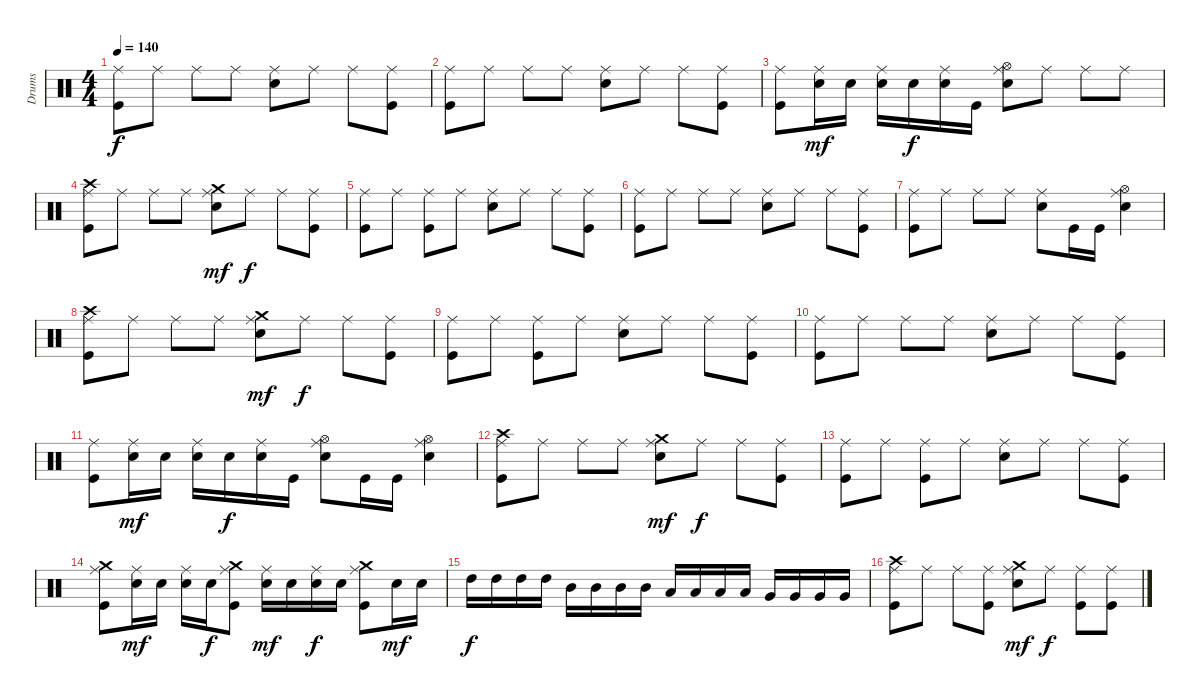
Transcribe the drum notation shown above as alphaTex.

\track ("Drums" "Drums") {instrument percussion}
\staff {score}
\articulation defaults
\ts (4 4)
\tempo 140
\clef neutral
\ks c
("Ride (middle)" "Kick (hit)").8{dy f} "Ride (middle)".8 "Ride (middle)".8 "Ride (middle)".8 ("Ride (middle)" "Electric Snare (hit)").8 "Ride (middle)".8 "Ride (middle)".8 ("Ride (middle)" "Kick (hit)").8 |
("Ride (middle)" "Kick (hit)").8 "Ride (middle)".8 "Ride (middle)".8 "Ride (middle)".8 ("Ride (middle)" "Electric Snare (hit)").8 "Ride (middle)".8 "Ride (middle)".8 ("Ride (middle)" "Kick (hit)").8 |
("Ride (middle)" "Kick (hit)").8 ("Ride (middle)" "Electric Snare (hit)").16{dy mf} "Electric Snare (hit)".16 ("Ride (middle)" "Electric Snare (hit)").16 "Electric Snare (hit)".16{dy f} ("Ride (middle)" "Electric Snare (hit)").16 "Kick (hit)".16 ("Ride (middle)" "Hi-Hat (open)" "Electric Snare (hit)").8 "Ride (middle)".8 "Ride (middle)".8 "Ride (middle)".8 |
("Crash high (hit)" "Ride (middle)" "Kick (hit)").8 "Ride (middle)".8 "Ride (middle)".8 "Ride (middle)".8 ("Crash medium (hit)" "Ride (middle)" "Electric Snare (hit)").8{dy mf} "Ride (middle)".8{dy f} "Ride (middle)".8 ("Ride (middle)" "Kick (hit)").8 |
("Ride (middle)" "Kick (hit)").8 "Ride (middle)".8 ("Ride (middle)" "Kick (hit)").8 "Ride (middle)".8 ("Ride (middle)" "Electric Snare (hit)").8 "Ride (middle)".8 "Ride (middle)".8 ("Ride (middle)" "Kick (hit)").8 |
("Ride (middle)" "Kick (hit)").8 "Ride (middle)".8 "Ride (middle)".8 "Ride (middle)".8 ("Ride (middle)" "Electric Snare (hit)").8 "Ride (middle)".8 "Ride (middle)".8 ("Ride (middle)" "Kick (hit)").8 |
("Ride (middle)" "Kick (hit)").8 "Ride (middle)".8 "Ride (middle)".8 "Ride (middle)".8 ("Ride (middle)" "Electric Snare (hit)").8 "Kick (hit)".16 "Kick (hit)".16 ("Ride (middle)" "Hi-Hat (open)" "Electric Snare (hit)").4 |
("Crash high (hit)" "Ride (middle)" "Kick (hit)").8 "Ride (middle)".8 "Ride (middle)".8 "Ride (middle)".8 ("Crash medium (hit)" "Ride (middle)" "Electric Snare (hit)").8{dy mf} "Ride (middle)".8{dy f} "Ride (middle)".8 ("Ride (middle)" "Kick (hit)").8 |
("Ride (middle)" "Kick (hit)").8 "Ride (middle)".8 ("Ride (middle)" "Kick (hit)").8 "Ride (middle)".8 ("Ride (middle)" "Electric Snare (hit)").8 "Ride (middle)".8 "Ride (middle)".8 ("Ride (middle)" "Kick (hit)").8 |
("Ride (middle)" "Kick (hit)").8 "Ride (middle)".8 "Ride (middle)".8 "Ride (middle)".8 ("Ride (middle)" "Electric Snare (hit)").8 "Ride (middle)".8 "Ride (middle)".8 ("Ride (middle)" "Kick (hit)").8 |
("Ride (middle)" "Kick (hit)").8 ("Ride (middle)" "Electric Snare (hit)").16{dy mf} "Electric Snare (hit)".16 ("Ride (middle)" "Electric Snare (hit)").16 "Electric Snare (hit)".16{dy f} ("Ride (middle)" "Electric Snare (hit)").16 "Kick (hit)".16 ("Ride (middle)" "Hi-Hat (open)" "Electric Snare (hit)").8 "Kick (hit)".16 "Kick (hit)".16 ("Ride (middle)" "Hi-Hat (open)" "Electric Snare (hit)").4 |
("Crash high (hit)" "Ride (middle)" "Kick (hit)").8 "Ride (middle)".8 "Ride (middle)".8 "Ride (middle)".8 ("Crash medium (hit)" "Ride (middle)" "Electric Snare (hit)").8{dy mf} "Ride (middle)".8{dy f} "Ride (middle)".8 ("Ride (middle)" "Kick (hit)").8 |
("Ride (middle)" "Kick (hit)").8 "Ride (middle)".8 ("Ride (middle)" "Kick (hit)").8 "Ride (middle)".8 ("Ride (middle)" "Electric Snare (hit)").8 "Ride (middle)".8 "Ride (middle)".8 ("Ride (middle)" "Kick (hit)").8 |
("Crash medium (hit)" "Ride (middle)" "Kick (hit)").8 ("Ride (middle)" "Electric Snare (hit)").16{dy mf} "Electric Snare (hit)".16 ("Ride (middle)" "Electric Snare (hit)").16 "Electric Snare (hit)".16{dy f} ("Ride (middle)" "Crash medium (hit)" "Kick (hit)").8 ("Ride (middle)" "Electric Snare (hit)").16{dy mf} "Electric Snare (hit)".16 ("Ride (middle)" "Electric Snare (hit)").16{dy f} "Electric Snare (hit)".16 ("Ride (middle)" "Crash medium (hit)" "Kick (hit)").8 "Electric Snare (hit)".16{dy mf} "Electric Snare (hit)".16 |
"High Tom (hit)".16{dy f} "High Tom (hit)".16 "High Tom (hit)".16 "High Tom (hit)".16 "Mid Tom (hit)".16 "Mid Tom (hit)".16 "Mid Tom (hit)".16 "Mid Tom (hit)".16 "Low Tom (hit)".16 "Low Tom (hit)".16 "Low Tom (hit)".16 "Low Tom (hit)".16 "Very Low Tom (hit)".16 "Very Low Tom (hit)".16 "Very Low Tom (hit)".16 "Very Low Tom (hit)".16 |
("Crash high (hit)" "Ride (middle)" "Kick (hit)").8 "Ride (middle)".8 "Ride (middle)".8 ("Ride (middle)" "Kick (hit)").8 ("Crash medium (hit)" "Ride (middle)" "Electric Snare (hit)").8{dy mf} "Ride (middle)".8{dy f} ("Ride (middle)" "Kick (hit)").8 ("Ride (middle)" "Kick (hit)").8
